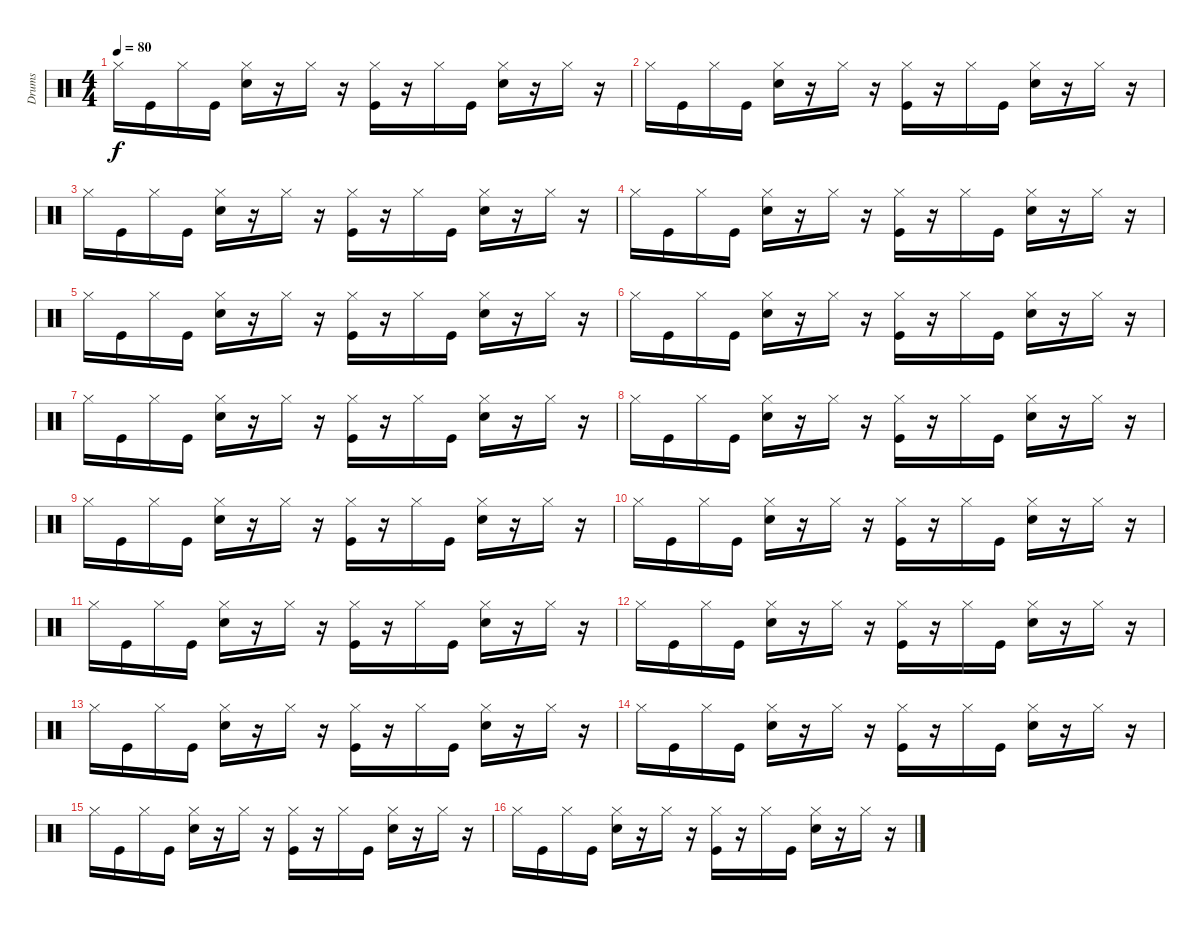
\track ("Drums" "Drums") {instrument percussion}
\staff {score}
\articulation defaults
\ts (4 4)
\tempo 80
\clef neutral
\ks c "Hi-Hat (closed)".16{dy f} "Kick (hit)".16 "Hi-Hat (closed)".16 "Kick (hit)".16
("Hi-Hat (closed)" "Electric Snare (hit)").16 r.16 "Hi-Hat (closed)".16 r.16 ("Hi-Hat (closed)" "Kick (hit)").16 r.16 "Hi-Hat (closed)".16 "Kick (hit)".16 ("Hi-Hat (closed)" "Electric Snare (hit)").16 r.16 "Hi-Hat (closed)".16 r.16 |
"Hi-Hat (closed)".16 "Kick (hit)".16 "Hi-Hat (closed)".16 "Kick (hit)".16 ("Hi-Hat (closed)" "Electric Snare (hit)").16 r.16 "Hi-Hat (closed)".16 r.16 ("Hi-Hat (closed)" "Kick (hit)").16 r.16 "Hi-Hat (closed)".16 "Kick (hit)".16 ("Hi-Hat (closed)" "Electric Snare (hit)").16 r.16 "Hi-Hat (closed)".16 r.16 |
"Hi-Hat (closed)".16 "Kick (hit)".16 "Hi-Hat (closed)".16 "Kick (hit)".16 ("Hi-Hat (closed)" "Electric Snare (hit)").16 r.16 "Hi-Hat (closed)".16 r.16 ("Hi-Hat (closed)" "Kick (hit)").16 r.16 "Hi-Hat (closed)".16 "Kick (hit)".16 ("Hi-Hat (closed)" "Electric Snare (hit)").16 r.16 "Hi-Hat (closed)".16 r.16 |
"Hi-Hat (closed)".16 "Kick (hit)".16 "Hi-Hat (closed)".16 "Kick (hit)".16 ("Hi-Hat (closed)" "Electric Snare (hit)").16 r.16 "Hi-Hat (closed)".16 r.16 ("Hi-Hat (closed)" "Kick (hit)").16 r.16 "Hi-Hat (closed)".16 "Kick (hit)".16 ("Hi-Hat (closed)" "Electric Snare (hit)").16 r.16 "Hi-Hat (closed)".16 r.16 |
"Hi-Hat (closed)".16 "Kick (hit)".16 "Hi-Hat (closed)".16 "Kick (hit)".16 ("Hi-Hat (closed)" "Electric Snare (hit)").16 r.16 "Hi-Hat (closed)".16 r.16 ("Hi-Hat (closed)" "Kick (hit)").16 r.16 "Hi-Hat (closed)".16 "Kick (hit)".16 ("Hi-Hat (closed)" "Electric Snare (hit)").16 r.16 "Hi-Hat (closed)".16 r.16 |
"Hi-Hat (closed)".16 "Kick (hit)".16 "Hi-Hat (closed)".16 "Kick (hit)".16 ("Hi-Hat (closed)" "Electric Snare (hit)").16 r.16 "Hi-Hat (closed)".16 r.16 ("Hi-Hat (closed)" "Kick (hit)").16 r.16 "Hi-Hat (closed)".16 "Kick (hit)".16 ("Hi-Hat (closed)" "Electric Snare (hit)").16 r.16 "Hi-Hat (closed)".16 r.16 |
"Hi-Hat (closed)".16 "Kick (hit)".16 "Hi-Hat (closed)".16 "Kick (hit)".16 ("Hi-Hat (closed)" "Electric Snare (hit)").16 r.16 "Hi-Hat (closed)".16 r.16 ("Hi-Hat (closed)" "Kick (hit)").16 r.16 "Hi-Hat (closed)".16 "Kick (hit)".16 ("Hi-Hat (closed)" "Electric Snare (hit)").16 r.16 "Hi-Hat (closed)".16 r.16 |
"Hi-Hat (closed)".16 "Kick (hit)".16 "Hi-Hat (closed)".16 "Kick (hit)".16 ("Hi-Hat (closed)" "Electric Snare (hit)").16 r.16 "Hi-Hat (closed)".16 r.16 ("Hi-Hat (closed)" "Kick (hit)").16 r.16 "Hi-Hat (closed)".16 "Kick (hit)".16 ("Hi-Hat (closed)" "Electric Snare (hit)").16 r.16 "Hi-Hat (closed)".16 r.16 |
"Hi-Hat (closed)".16 "Kick (hit)".16 "Hi-Hat (closed)".16 "Kick (hit)".16 ("Hi-Hat (closed)" "Electric Snare (hit)").16 r.16 "Hi-Hat (closed)".16 r.16 ("Hi-Hat (closed)" "Kick (hit)").16 r.16 "Hi-Hat (closed)".16 "Kick (hit)".16 ("Hi-Hat (closed)" "Electric Snare (hit)").16 r.16 "Hi-Hat (closed)".16 r.16 |
"Hi-Hat (closed)".16 "Kick (hit)".16 "Hi-Hat (closed)".16 "Kick (hit)".16 ("Hi-Hat (closed)" "Electric Snare (hit)").16 r.16 "Hi-Hat (closed)".16 r.16 ("Hi-Hat (closed)" "Kick (hit)").16 r.16 "Hi-Hat (closed)".16 "Kick (hit)".16 ("Hi-Hat (closed)" "Electric Snare (hit)").16 r.16 "Hi-Hat (closed)".16 r.16 |
"Hi-Hat (closed)".16 "Kick (hit)".16 "Hi-Hat (closed)".16 "Kick (hit)".16 ("Hi-Hat (closed)" "Electric Snare (hit)").16 r.16 "Hi-Hat (closed)".16 r.16 ("Hi-Hat (closed)" "Kick (hit)").16 r.16 "Hi-Hat (closed)".16 "Kick (hit)".16 ("Hi-Hat (closed)" "Electric Snare (hit)").16 r.16 "Hi-Hat (closed)".16 r.16 |
"Hi-Hat (closed)".16 "Kick (hit)".16 "Hi-Hat (closed)".16 "Kick (hit)".16 ("Hi-Hat (closed)" "Electric Snare (hit)").16 r.16 "Hi-Hat (closed)".16 r.16 ("Hi-Hat (closed)" "Kick (hit)").16 r.16 "Hi-Hat (closed)".16 "Kick (hit)".16 ("Hi-Hat (closed)" "Electric Snare (hit)").16 r.16 "Hi-Hat (closed)".16 r.16 |
"Hi-Hat (closed)".16 "Kick (hit)".16 "Hi-Hat (closed)".16 "Kick (hit)".16 ("Hi-Hat (closed)" "Electric Snare (hit)").16 r.16 "Hi-Hat (closed)".16 r.16 ("Hi-Hat (closed)" "Kick (hit)").16 r.16 "Hi-Hat (closed)".16 "Kick (hit)".16 ("Hi-Hat (closed)" "Electric Snare (hit)").16 r.16 "Hi-Hat (closed)".16 r.16 |
"Hi-Hat (closed)".16 "Kick (hit)".16 "Hi-Hat (closed)".16 "Kick (hit)".16 ("Hi-Hat (closed)" "Electric Snare (hit)").16 r.16 "Hi-Hat (closed)".16 r.16 ("Hi-Hat (closed)" "Kick (hit)").16 r.16 "Hi-Hat (closed)".16 "Kick (hit)".16 ("Hi-Hat (closed)" "Electric Snare (hit)").16 r.16 "Hi-Hat (closed)".16 r.16 |
"Hi-Hat (closed)".16 "Kick (hit)".16 "Hi-Hat (closed)".16 "Kick (hit)".16 ("Hi-Hat (closed)" "Electric Snare (hit)").16 r.16 "Hi-Hat (closed)".16 r.16 ("Hi-Hat (closed)" "Kick (hit)").16 r.16 "Hi-Hat (closed)".16 "Kick (hit)".16 ("Hi-Hat (closed)" "Electric Snare (hit)").16 r.16 "Hi-Hat (closed)".16 r.16 |
"Hi-Hat (closed)".16 "Kick (hit)".16 "Hi-Hat (closed)".16 "Kick (hit)".16 ("Hi-Hat (closed)" "Electric Snare (hit)").16 r.16 "Hi-Hat (closed)".16 r.16 ("Hi-Hat (closed)" "Kick (hit)").16 r.16 "Hi-Hat (closed)".16 "Kick (hit)".16 ("Hi-Hat (closed)" "Electric Snare (hit)").16 r.16 "Hi-Hat (closed)".16 r.16
